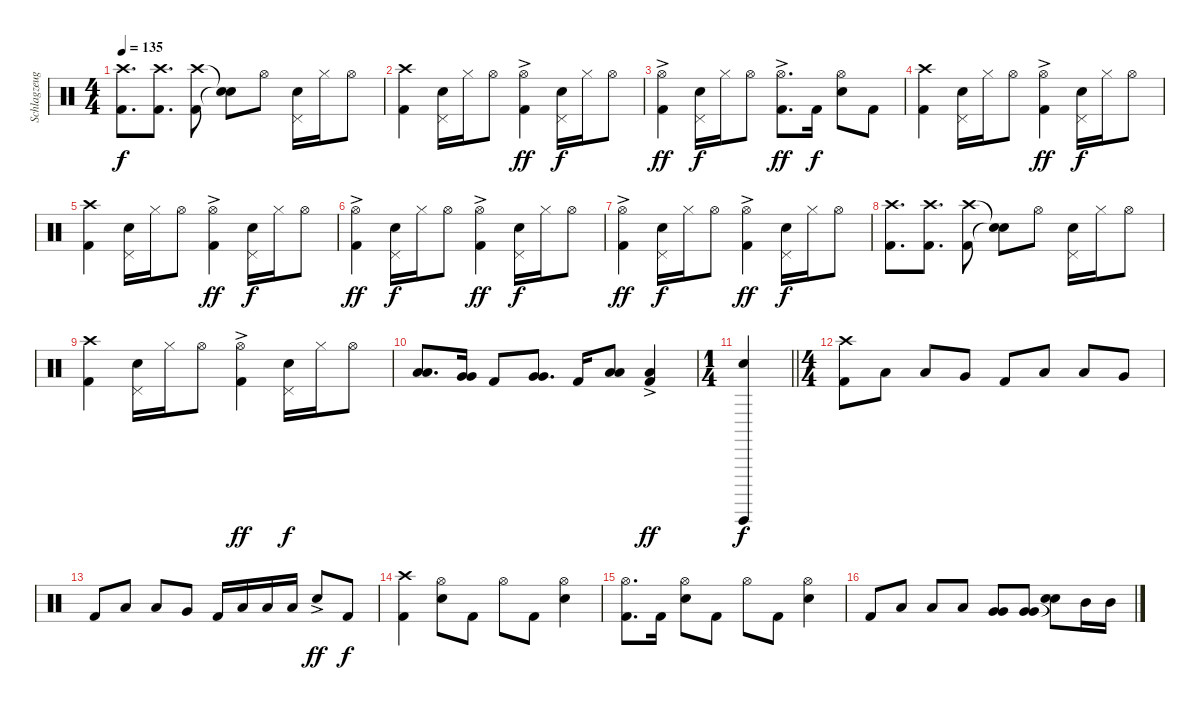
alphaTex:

\track ("Schlagzeug" "Schlagzeug") {instrument percussion}
\staff {score}
\articulation defaults
\ts (4 4)
\tempo 135
\clef neutral
\ks c
("Crash high (hit)" "Kick (hit) 2").8{d dy f} ("Crash high (hit)" "Kick (hit) 2").8{d} ("Crash high (hit)" "Kick (hit) 2").8 ("Snare (hit)"{t} "Snare (hit)"{t}).8 "Hi-Hat (open)".8 ("Electric Snare (hit)" "Pedal Hi-Hat (hit)").16 "Hi-Hat (closed)".16 "Hi-Hat (open)".8 |
("Crash high (hit)" "Kick (hit) 2").4 ("Electric Snare (hit)" "Pedal Hi-Hat (hit)").16 "Hi-Hat (closed)".16 "Hi-Hat (open)".8 ("Hi-Hat (open)"{ac} "Kick (hit) 2").4{dy ff} ("Electric Snare (hit)" "Pedal Hi-Hat (hit)").16{dy f} "Hi-Hat (closed)".16 "Hi-Hat (open)".8 |
("Hi-Hat (open)"{ac} "Kick (hit) 2").4{dy ff} ("Electric Snare (hit)" "Pedal Hi-Hat (hit)").16{dy f} "Hi-Hat (closed)".16 "Hi-Hat (open)".8 ("Hi-Hat (open)"{ac} "Kick (hit) 2").8{d dy ff} "Kick (hit) 2".16{dy f} ("Hi-Hat (open)" "Electric Snare (hit)").8 "Kick (hit) 2".8 |
("Crash high (hit)" "Kick (hit) 2").4 ("Electric Snare (hit)" "Pedal Hi-Hat (hit)").16 "Hi-Hat (closed)".16 "Hi-Hat (open)".8 ("Hi-Hat (open)"{ac} "Kick (hit) 2").4{dy ff} ("Electric Snare (hit)" "Pedal Hi-Hat (hit)").16{dy f} "Hi-Hat (closed)".16 "Hi-Hat (open)".8 |
("Crash high (hit)" "Kick (hit) 2").4 ("Electric Snare (hit)" "Pedal Hi-Hat (hit)").16 "Hi-Hat (closed)".16 "Hi-Hat (open)".8 ("Hi-Hat (open)"{ac} "Kick (hit) 2").4{dy ff} ("Electric Snare (hit)" "Pedal Hi-Hat (hit)").16{dy f} "Hi-Hat (closed)".16 "Hi-Hat (open)".8 |
("Hi-Hat (open)"{ac} "Kick (hit) 2").4{dy ff} ("Electric Snare (hit)" "Pedal Hi-Hat (hit)").16{dy f} "Hi-Hat (closed)".16 "Hi-Hat (open)".8 ("Hi-Hat (open)"{ac} "Kick (hit) 2").4{dy ff} ("Electric Snare (hit)" "Pedal Hi-Hat (hit)").16{dy f} "Hi-Hat (closed)".16 "Hi-Hat (open)".8 |
("Hi-Hat (open)"{ac} "Kick (hit) 2").4{dy ff} ("Electric Snare (hit)" "Pedal Hi-Hat (hit)").16{dy f} "Hi-Hat (closed)".16 "Hi-Hat (open)".8 ("Hi-Hat (open)"{ac} "Kick (hit) 2").4{dy ff} ("Electric Snare (hit)" "Pedal Hi-Hat (hit)").16{dy f} "Hi-Hat (closed)".16 "Hi-Hat (open)".8 |
("Crash high (hit)" "Kick (hit) 2").8{d} ("Crash high (hit)" "Kick (hit) 2").8{d} ("Crash high (hit)" "Kick (hit) 2").8 ("Snare (hit)"{t} "Snare (hit)"{t}).8 "Hi-Hat (open)".8 ("Electric Snare (hit)" "Pedal Hi-Hat (hit)").16 "Hi-Hat (closed)".16 "Hi-Hat (open)".8 |
("Crash high (hit)" "Kick (hit) 2").4 ("Electric Snare (hit)" "Pedal Hi-Hat (hit)").16 "Hi-Hat (closed)".16 "Hi-Hat (open)".8 ("Hi-Hat (open)"{ac} "Kick (hit) 2").4{dy ff} ("Electric Snare (hit)" "Pedal Hi-Hat (hit)").16{dy f} "Hi-Hat (closed)".16 "Hi-Hat (open)".8 |
("Low Tom (hit)" "Low Tom (hit)").8{d} ("Very Low Tom (hit)" "Very Low Tom (hit)").16 "Kick (hit) 2".8 ("Very Low Tom (hit)" "Very Low Tom (hit)").8{d} "Kick (hit) 2".16 ("Low Floor Tom (hit)" "Low Floor Tom (hit)").8 ("Low Floor Tom (hit)"{ac} "Kick (hit) 2"{ac}).4{dy ff} |
\ts (1 4)
\barLineRight lightlight
("Guiro (hit)" "Hand Clap (hit)").4{dy f} |
\ts (4 4)
("Crash high (hit)" "Kick (hit) 2").8 "Low Floor Tom (hit)".8 "Low Tom (hit)".8 "Very Low Tom (hit)".8 "Kick (hit) 2".8 "Low Floor Tom (hit)".8 "Low Tom (hit)".8 "Very Low Tom (hit)".8 |
"Kick (hit) 2".8 "Low Floor Tom (hit)".8 "Low Tom (hit)".8 "Very Low Tom (hit)".8 "Kick (hit) 2".16 "Low Floor Tom (hit)".16 "Low Floor Tom (hit)".16 "Low Floor Tom (hit)".16 "Electric Snare (hit)"{ac}.8{dy ff} "Kick (hit) 2".8{dy f} |
("Crash high (hit)" "Kick (hit) 2").4 ("Hi-Hat (open)" "Electric Snare (hit)").8 "Kick (hit) 2".8 "Hi-Hat (open)".8 "Kick (hit) 2".8 ("Hi-Hat (open)" "Electric Snare (hit)").4 |
("Hi-Hat (open)" "Kick (hit) 2").8{d} "Kick (hit) 2".16 ("Hi-Hat (open)" "Electric Snare (hit)").8 "Kick (hit) 2".8 "Hi-Hat (open)".8 "Kick (hit) 2".8 ("Hi-Hat (open)" "Electric Snare (hit)").4 |
"Kick (hit) 2".8 "Low Floor Tom (hit)".8 "Low Tom (hit)".8 "Low Floor Tom (hit)".8 ("Very Low Tom (hit)" "Very Low Tom (hit)").8 ("Very Low Tom (hit)" "Very Low Tom (hit)").8 ("Snare (hit)"{t} "Snare (hit)"{t}).8 "Mid Tom (hit)".16 "Mid Tom (hit)".16
